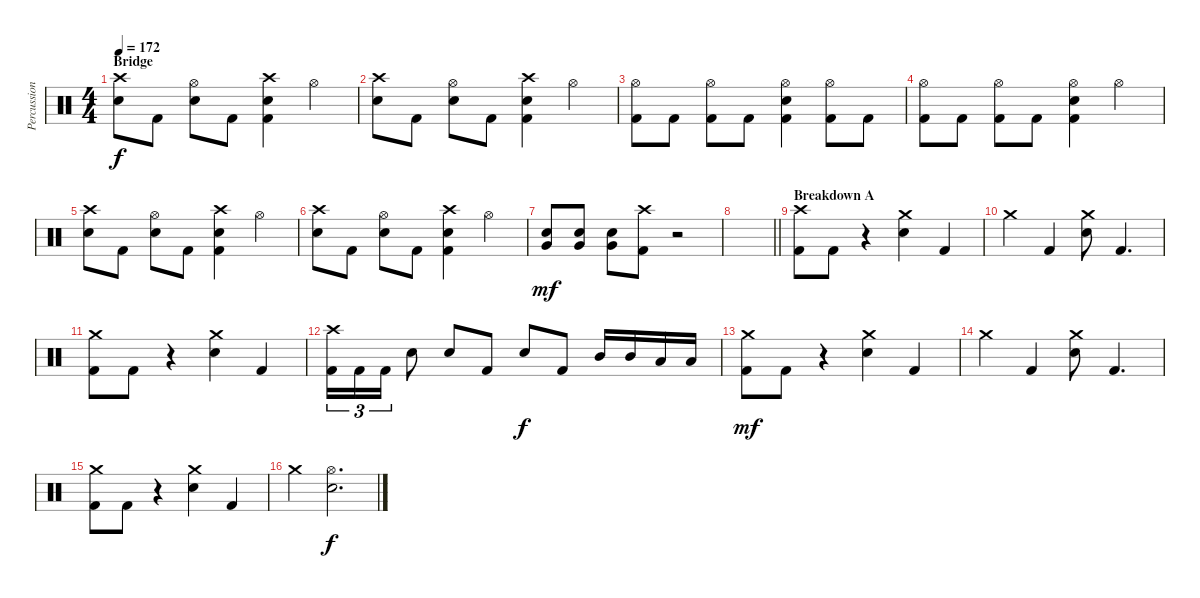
\track ("Percussion" "Percussion") {instrument percussion}
\staff {score}
\articulation defaults
\ts (4 4)
\section ("" "Bridge")
\tempo 172
\clef neutral
\ks c
("Crash high (hit)" "Snare (hit) 2").8{dy f} "Kick (hit) 2".8 ("Hi-Hat (open)" "Snare (hit) 2").8 "Kick (hit) 2".8 ("Crash high (hit)" "Snare (hit) 2" "Kick (hit) 2").4 "Hi-Hat (open)".4 |
("Crash high (hit)" "Snare (hit) 2").8 "Kick (hit) 2".8 ("Hi-Hat (open)" "Snare (hit) 2").8 "Kick (hit) 2".8 ("Crash high (hit)" "Snare (hit) 2" "Kick (hit) 2").4 "Hi-Hat (open)".4 |
("Hi-Hat (open)" "Kick (hit) 2").8 "Kick (hit) 2".8 ("Hi-Hat (open)" "Kick (hit) 2").8 "Kick (hit) 2".8 ("Hi-Hat (open)" "Snare (hit) 2" "Kick (hit) 2").4 ("Hi-Hat (open)" "Kick (hit) 2").8 "Kick (hit) 2".8 |
("Hi-Hat (open)" "Kick (hit) 2").8 "Kick (hit) 2".8 ("Hi-Hat (open)" "Kick (hit) 2").8 "Kick (hit) 2".8 ("Hi-Hat (open)" "Snare (hit) 2" "Kick (hit) 2").4 "Hi-Hat (open)".4 |
("Crash high (hit)" "Snare (hit) 2").8 "Kick (hit) 2".8 ("Hi-Hat (open)" "Snare (hit) 2").8 "Kick (hit) 2".8 ("Crash high (hit)" "Snare (hit) 2" "Kick (hit) 2").4 "Hi-Hat (open)".4 |
("Crash high (hit)" "Snare (hit) 2").8 "Kick (hit) 2".8 ("Hi-Hat (open)" "Snare (hit) 2").8 "Kick (hit) 2".8 ("Crash high (hit)" "Snare (hit) 2" "Kick (hit) 2").4 "Hi-Hat (open)".4 |
("Very Low Tom (hit)" "Snare (hit) 2").8{dy mf} ("Very Low Tom (hit)" "Snare (hit) 2").8 ("Very Low Tom (hit)" "Snare (hit) 2").8 ("Crash high (hit)" "Kick (hit) 2").8 r.2 |
\barLineRight lightlight
|
\section ("" "Breakdown A")
("Crash high (hit)" "Kick (hit) 2").8 "Kick (hit) 2".8 r.4 ("Crash medium (hit)" "Snare (hit) 2").4 "Kick (hit) 2".4 |
"Crash medium (hit)".4 "Kick (hit) 2".4 ("Crash medium (hit)" "Snare (hit) 2").8 "Kick (hit) 2".4{d} |
("Crash medium (hit)" "Kick (hit) 2").8 "Kick (hit) 2".8 r.4 ("Crash medium (hit)" "Snare (hit) 2").4 "Kick (hit) 2".4 |
("Crash high (hit)" "Kick (hit) 2").16{tu (3 2)} "Kick (hit) 2".16{tu (3 2)} "Kick (hit) 2".16{tu (3 2)} "Snare (hit) 2".8 "Snare (hit) 2".8 "Kick (hit) 2".8 "Snare (hit) 2".8{dy f} "Kick (hit) 2".8 "Mid Tom (hit)".16 "Mid Tom (hit)".16 "Low Tom (hit)".16 "Low Tom (hit)".16 |
("Crash medium (hit)" "Kick (hit) 2").8{dy mf} "Kick (hit) 2".8 r.4 ("Crash medium (hit)" "Snare (hit) 2").4 "Kick (hit) 2".4 |
"Crash medium (hit)".4 "Kick (hit) 2".4 ("Crash medium (hit)" "Snare (hit) 2").8 "Kick (hit) 2".4{d} |
("Crash medium (hit)" "Kick (hit) 2").8 "Kick (hit) 2".8 r.4 ("Crash medium (hit)" "Snare (hit) 2").4 "Kick (hit) 2".4 |
"Crash medium (hit)".4 ("Hi-Hat (open)" "Snare (hit) 2").2{d dy f}
